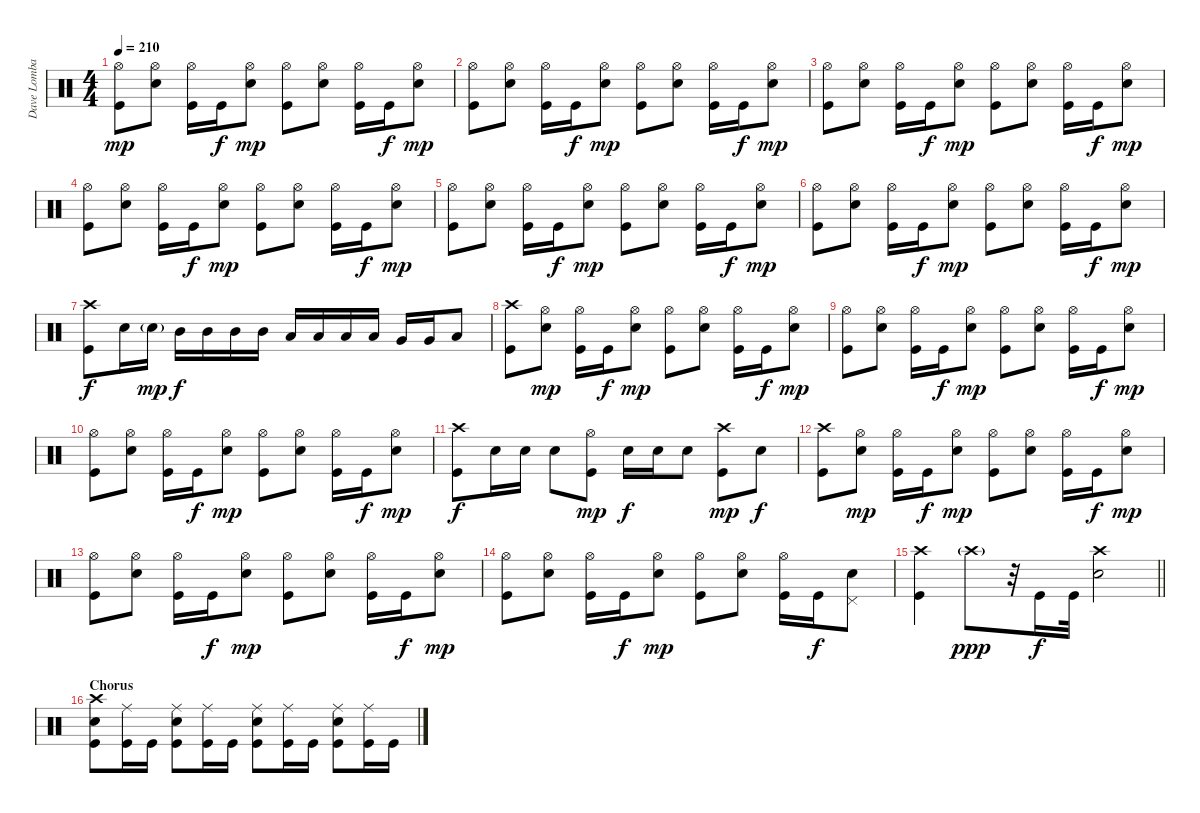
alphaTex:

\track ("Dave Lombardo" "Dave Lomba") {instrument percussion}
\staff {score}
\articulation defaults
\ts (4 4)
\tempo 210
\clef neutral
\ks c
("Hi-Hat (open)" "Kick (hit)").8{dy mp} ("Hi-Hat (open)" "Electric Snare (hit)").8 ("Hi-Hat (open)" "Kick (hit)").16 "Kick (hit)".16{dy f} ("Hi-Hat (open)" "Electric Snare (hit)").8{dy mp} ("Hi-Hat (open)" "Kick (hit)").8 ("Hi-Hat (open)" "Electric Snare (hit)").8 ("Hi-Hat (open)" "Kick (hit)").16 "Kick (hit)".16{dy f} ("Hi-Hat (open)" "Electric Snare (hit)").8{dy mp} |
("Hi-Hat (open)" "Kick (hit)").8 ("Hi-Hat (open)" "Electric Snare (hit)").8 ("Hi-Hat (open)" "Kick (hit)").16 "Kick (hit)".16{dy f} ("Hi-Hat (open)" "Electric Snare (hit)").8{dy mp} ("Hi-Hat (open)" "Kick (hit)").8 ("Hi-Hat (open)" "Electric Snare (hit)").8 ("Hi-Hat (open)" "Kick (hit)").16 "Kick (hit)".16{dy f} ("Hi-Hat (open)" "Electric Snare (hit)").8{dy mp} |
("Hi-Hat (open)" "Kick (hit)").8 ("Hi-Hat (open)" "Electric Snare (hit)").8 ("Hi-Hat (open)" "Kick (hit)").16 "Kick (hit)".16{dy f} ("Hi-Hat (open)" "Electric Snare (hit)").8{dy mp} ("Hi-Hat (open)" "Kick (hit)").8 ("Hi-Hat (open)" "Electric Snare (hit)").8 ("Hi-Hat (open)" "Kick (hit)").16 "Kick (hit)".16{dy f} ("Hi-Hat (open)" "Electric Snare (hit)").8{dy mp} |
("Hi-Hat (open)" "Kick (hit)").8 ("Hi-Hat (open)" "Electric Snare (hit)").8 ("Hi-Hat (open)" "Kick (hit)").16 "Kick (hit)".16{dy f} ("Hi-Hat (open)" "Electric Snare (hit)").8{dy mp} ("Hi-Hat (open)" "Kick (hit)").8 ("Hi-Hat (open)" "Electric Snare (hit)").8 ("Hi-Hat (open)" "Kick (hit)").16 "Kick (hit)".16{dy f} ("Hi-Hat (open)" "Electric Snare (hit)").8{dy mp} |
("Hi-Hat (open)" "Kick (hit)").8 ("Hi-Hat (open)" "Electric Snare (hit)").8 ("Hi-Hat (open)" "Kick (hit)").16 "Kick (hit)".16{dy f} ("Hi-Hat (open)" "Electric Snare (hit)").8{dy mp} ("Hi-Hat (open)" "Kick (hit)").8 ("Hi-Hat (open)" "Electric Snare (hit)").8 ("Hi-Hat (open)" "Kick (hit)").16 "Kick (hit)".16{dy f} ("Hi-Hat (open)" "Electric Snare (hit)").8{dy mp} |
("Hi-Hat (open)" "Kick (hit)").8 ("Hi-Hat (open)" "Electric Snare (hit)").8 ("Hi-Hat (open)" "Kick (hit)").16 "Kick (hit)".16{dy f} ("Hi-Hat (open)" "Electric Snare (hit)").8{dy mp} ("Hi-Hat (open)" "Kick (hit)").8 ("Hi-Hat (open)" "Electric Snare (hit)").8 ("Hi-Hat (open)" "Kick (hit)").16 "Kick (hit)".16{dy f} ("Hi-Hat (open)" "Electric Snare (hit)").8{dy mp} |
("Crash high (hit)" "Kick (hit)").8{dy f} "Electric Snare (hit)".16 "Electric Snare (hit)"{g}.16{dy mp} "Mid Tom (hit)".16{dy f} "Mid Tom (hit)".16 "Mid Tom (hit)".16 "Mid Tom (hit)".16 "Low Tom (hit)".16 "Low Tom (hit)".16 "Low Tom (hit)".16 "Low Tom (hit)".16 "Very Low Tom (hit)".16 "Very Low Tom (hit)".16 "Low Floor Tom (hit)".8 |
("Crash high (hit)" "Kick (hit)").8 ("Hi-Hat (open)" "Electric Snare (hit)").8{dy mp} ("Hi-Hat (open)" "Kick (hit)").16 "Kick (hit)".16{dy f} ("Hi-Hat (open)" "Electric Snare (hit)").8{dy mp} ("Hi-Hat (open)" "Kick (hit)").8 ("Hi-Hat (open)" "Electric Snare (hit)").8 ("Hi-Hat (open)" "Kick (hit)").16 "Kick (hit)".16{dy f} ("Hi-Hat (open)" "Electric Snare (hit)").8{dy mp} |
("Hi-Hat (open)" "Kick (hit)").8 ("Hi-Hat (open)" "Electric Snare (hit)").8 ("Hi-Hat (open)" "Kick (hit)").16 "Kick (hit)".16{dy f} ("Hi-Hat (open)" "Electric Snare (hit)").8{dy mp} ("Hi-Hat (open)" "Kick (hit)").8 ("Hi-Hat (open)" "Electric Snare (hit)").8 ("Hi-Hat (open)" "Kick (hit)").16 "Kick (hit)".16{dy f} ("Hi-Hat (open)" "Electric Snare (hit)").8{dy mp} |
("Hi-Hat (open)" "Kick (hit)").8 ("Hi-Hat (open)" "Electric Snare (hit)").8 ("Hi-Hat (open)" "Kick (hit)").16 "Kick (hit)".16{dy f} ("Hi-Hat (open)" "Electric Snare (hit)").8{dy mp} ("Hi-Hat (open)" "Kick (hit)").8 ("Hi-Hat (open)" "Electric Snare (hit)").8 ("Hi-Hat (open)" "Kick (hit)").16 "Kick (hit)".16{dy f} ("Hi-Hat (open)" "Electric Snare (hit)").8{dy mp} |
("Crash high (hit)" "Kick (hit)").8{dy f} "Electric Snare (hit)".16 "Electric Snare (hit)".16 "Electric Snare (hit)".8 ("Hi-Hat (open)" "Kick (hit)").8{dy mp} "Electric Snare (hit)".16{dy f} "Electric Snare (hit)".16 "Electric Snare (hit)".8 ("Crash high (hit)" "Kick (hit)").8{dy mp} "Electric Snare (hit)".8{dy f} |
("Crash high (hit)" "Kick (hit)").8 ("Hi-Hat (open)" "Electric Snare (hit)").8{dy mp} ("Hi-Hat (open)" "Kick (hit)").16 "Kick (hit)".16{dy f} ("Hi-Hat (open)" "Electric Snare (hit)").8{dy mp} ("Hi-Hat (open)" "Kick (hit)").8 ("Hi-Hat (open)" "Electric Snare (hit)").8 ("Hi-Hat (open)" "Kick (hit)").16 "Kick (hit)".16{dy f} ("Hi-Hat (open)" "Electric Snare (hit)").8{dy mp} |
("Hi-Hat (open)" "Kick (hit)").8 ("Hi-Hat (open)" "Electric Snare (hit)").8 ("Hi-Hat (open)" "Kick (hit)").16 "Kick (hit)".16{dy f} ("Hi-Hat (open)" "Electric Snare (hit)").8{dy mp} ("Hi-Hat (open)" "Kick (hit)").8 ("Hi-Hat (open)" "Electric Snare (hit)").8 ("Hi-Hat (open)" "Kick (hit)").16 "Kick (hit)".16{dy f} ("Hi-Hat (open)" "Electric Snare (hit)").8{dy mp} |
("Hi-Hat (open)" "Kick (hit)").8 ("Hi-Hat (open)" "Electric Snare (hit)").8 ("Hi-Hat (open)" "Kick (hit)").16 "Kick (hit)".16{dy f} ("Hi-Hat (open)" "Electric Snare (hit)").8{dy mp} ("Hi-Hat (open)" "Kick (hit)").8 ("Hi-Hat (open)" "Electric Snare (hit)").8 ("Hi-Hat (open)" "Kick (hit)").16 "Kick (hit)".16{dy f} ("Pedal Hi-Hat (hit)" "Electric Snare (hit)").8 |
\barLineRight lightlight
("Crash high (hit)" "Kick (hit)").4 "Crash high (hit)"{g}.8{dy ppp} r.32 "Kick (hit)".16{dy f} "Kick (hit)".32 ("Crash high (hit)" "Electric Snare (hit)").2 |
\section ("" "Chorus")
("Crash high (hit)" "Electric Snare (hit)" "Kick (hit)").8 ("Ride (middle)" "Kick (hit)").16 "Kick (hit)".16 ("Ride (middle)" "Electric Snare (hit)" "Kick (hit)").8 ("Ride (middle)" "Kick (hit)").16 "Kick (hit)".16 ("Ride (middle)" "Electric Snare (hit)" "Kick (hit)").8 ("Ride (middle)" "Kick (hit)").16 "Kick (hit)".16 ("Ride (middle)" "Electric Snare (hit)" "Kick (hit)").8 ("Ride (middle)" "Kick (hit)").16 "Kick (hit)".16
